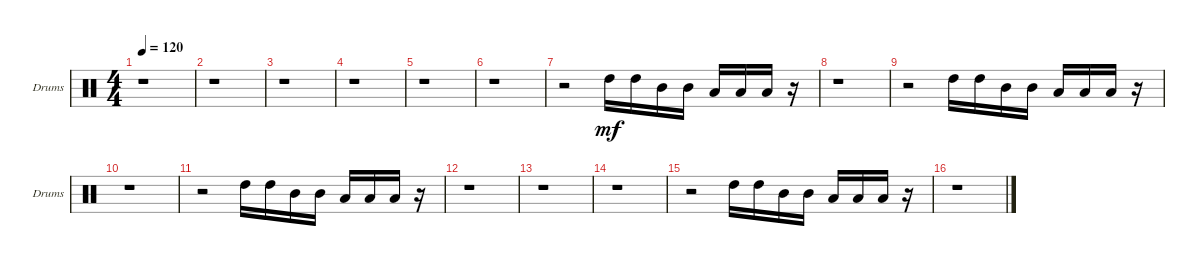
\bracketExtendMode groupsimilarinstruments
\singleTrackTrackNamePolicy allsystems
\multiTrackTrackNamePolicy allsystems
\firstSystemTrackNameOrientation horizontal
\otherSystemsTrackNameOrientation horizontal
\track ("Toms" "Drums") {instrument percussion}
\staff {score}
\articulation defaults
\ts (4 4)
\tempo 120
\clef neutral
\scale
0.333333
\ks c
r.1{dy mf} |
\scale
0.333333 r.1 |
\scale
0.333333 r.1 |
\scale
0.333333 r.1 |
\scale
0.333333 r.1 |
\scale
0.333333 r.1 |
\scale
0.333333 r.2 "High Tom (hit)".16 "High Tom (hit)".16 "Mid Tom (hit)".16 "Mid Tom (hit)".16 "Low Tom (hit)".16 "Low Tom (hit)".16 "Low Tom (hit)".16 r.16 |
\scale
0.333333 r.1 |
\scale
0.333333 r.2 "High Tom (hit)".16 "High Tom (hit)".16 "Mid Tom (hit)".16 "Mid Tom (hit)".16 "Low Tom (hit)".16 "Low Tom (hit)".16 "Low Tom (hit)".16 r.16 |
\scale
0.333333 r.1 |
\scale
0.333333 r.2 "High Tom (hit)".16 "High Tom (hit)".16 "Mid Tom (hit)".16 "Mid Tom (hit)".16 "Low Tom (hit)".16 "Low Tom (hit)".16 "Low Tom (hit)".16 r.16 |
\scale
0.333333 r.1 |
\scale
0.333333 r.1 |
\scale
0.333333 r.1 |
\scale
0.333333 r.2 "High Tom (hit)".16 "High Tom (hit)".16 "Mid Tom (hit)".16 "Mid Tom (hit)".16 "Low Tom (hit)".16 "Low Tom (hit)".16 "Low Tom (hit)".16 r.16 |
\scale
0.333333 r.1
